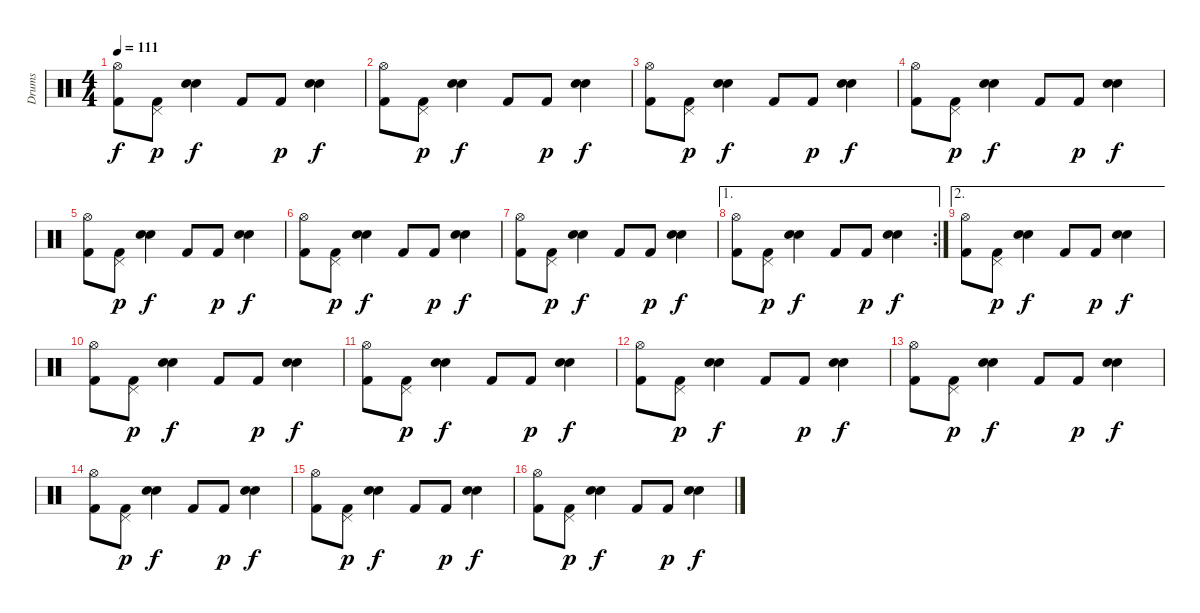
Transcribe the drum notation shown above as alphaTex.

\track ("Drums" "Drums") {instrument percussion}
\staff {score}
\articulation defaults
\ts (4 4)
\tempo 111
\clef neutral
\ks c
("Hi-Hat (open)" "Kick (hit) 2").8{dy f} ("Kick (hit) 2" "Pedal Hi-Hat (hit)").8{dy p} ("Snare (hit) 2" "Snare (hit) 2").4{dy f} "Kick (hit) 2".8 "Kick (hit) 2".8{dy p} ("Snare (hit) 2" "Snare (hit) 2").4{dy f} |
("Hi-Hat (open)" "Kick (hit) 2").8 ("Kick (hit) 2" "Pedal Hi-Hat (hit)").8{dy p} ("Snare (hit) 2" "Snare (hit) 2").4{dy f} "Kick (hit) 2".8 "Kick (hit) 2".8{dy p} ("Snare (hit) 2" "Snare (hit) 2").4{dy f} |
("Hi-Hat (open)" "Kick (hit) 2").8 ("Kick (hit) 2" "Pedal Hi-Hat (hit)").8{dy p} ("Snare (hit) 2" "Snare (hit) 2").4{dy f} "Kick (hit) 2".8 "Kick (hit) 2".8{dy p} ("Snare (hit) 2" "Snare (hit) 2").4{dy f} |
("Hi-Hat (open)" "Kick (hit) 2").8 ("Kick (hit) 2" "Pedal Hi-Hat (hit)").8{dy p} ("Snare (hit) 2" "Snare (hit) 2").4{dy f} "Kick (hit) 2".8 "Kick (hit) 2".8{dy p} ("Snare (hit) 2" "Snare (hit) 2").4{dy f} |
("Hi-Hat (open)" "Kick (hit) 2").8 ("Kick (hit) 2" "Pedal Hi-Hat (hit)").8{dy p} ("Snare (hit) 2" "Snare (hit) 2").4{dy f} "Kick (hit) 2".8 "Kick (hit) 2".8{dy p} ("Snare (hit) 2" "Snare (hit) 2").4{dy f} |
("Hi-Hat (open)" "Kick (hit) 2").8 ("Kick (hit) 2" "Pedal Hi-Hat (hit)").8{dy p} ("Snare (hit) 2" "Snare (hit) 2").4{dy f} "Kick (hit) 2".8 "Kick (hit) 2".8{dy p} ("Snare (hit) 2" "Snare (hit) 2").4{dy f} |
("Hi-Hat (open)" "Kick (hit) 2").8 ("Kick (hit) 2" "Pedal Hi-Hat (hit)").8{dy p} ("Snare (hit) 2" "Snare (hit) 2").4{dy f} "Kick (hit) 2".8 "Kick (hit) 2".8{dy p} ("Snare (hit) 2" "Snare (hit) 2").4{dy f} |
\ae 1
\rc 2
("Hi-Hat (open)" "Kick (hit) 2").8 ("Kick (hit) 2" "Pedal Hi-Hat (hit)").8{dy p} ("Snare (hit) 2" "Snare (hit) 2").4{dy f} "Kick (hit) 2".8 "Kick (hit) 2".8{dy p} ("Snare (hit) 2" "Snare (hit) 2").4{dy f} |
\ae 2
("Hi-Hat (open)" "Kick (hit) 2").8 ("Kick (hit) 2" "Pedal Hi-Hat (hit)").8{dy p} ("Snare (hit) 2" "Snare (hit) 2").4{dy f} "Kick (hit) 2".8 "Kick (hit) 2".8{dy p} ("Snare (hit) 2" "Snare (hit) 2").4{dy f} |
("Hi-Hat (open)" "Kick (hit) 2").8 ("Kick (hit) 2" "Pedal Hi-Hat (hit)").8{dy p} ("Snare (hit) 2" "Snare (hit) 2").4{dy f} "Kick (hit) 2".8 "Kick (hit) 2".8{dy p} ("Snare (hit) 2" "Snare (hit) 2").4{dy f} |
("Hi-Hat (open)" "Kick (hit) 2").8 ("Kick (hit) 2" "Pedal Hi-Hat (hit)").8{dy p} ("Snare (hit) 2" "Snare (hit) 2").4{dy f} "Kick (hit) 2".8 "Kick (hit) 2".8{dy p} ("Snare (hit) 2" "Snare (hit) 2").4{dy f} |
("Hi-Hat (open)" "Kick (hit) 2").8 ("Kick (hit) 2" "Pedal Hi-Hat (hit)").8{dy p} ("Snare (hit) 2" "Snare (hit) 2").4{dy f} "Kick (hit) 2".8 "Kick (hit) 2".8{dy p} ("Snare (hit) 2" "Snare (hit) 2").4{dy f} |
("Hi-Hat (open)" "Kick (hit) 2").8 ("Kick (hit) 2" "Pedal Hi-Hat (hit)").8{dy p} ("Snare (hit) 2" "Snare (hit) 2").4{dy f} "Kick (hit) 2".8 "Kick (hit) 2".8{dy p} ("Snare (hit) 2" "Snare (hit) 2").4{dy f} |
("Hi-Hat (open)" "Kick (hit) 2").8 ("Kick (hit) 2" "Pedal Hi-Hat (hit)").8{dy p} ("Snare (hit) 2" "Snare (hit) 2").4{dy f} "Kick (hit) 2".8 "Kick (hit) 2".8{dy p} ("Snare (hit) 2" "Snare (hit) 2").4{dy f} |
("Hi-Hat (open)" "Kick (hit) 2").8 ("Kick (hit) 2" "Pedal Hi-Hat (hit)").8{dy p} ("Snare (hit) 2" "Snare (hit) 2").4{dy f} "Kick (hit) 2".8 "Kick (hit) 2".8{dy p} ("Snare (hit) 2" "Snare (hit) 2").4{dy f} |
("Hi-Hat (open)" "Kick (hit) 2").8 ("Kick (hit) 2" "Pedal Hi-Hat (hit)").8{dy p} ("Snare (hit) 2" "Snare (hit) 2").4{dy f} "Kick (hit) 2".8 "Kick (hit) 2".8{dy p} ("Snare (hit) 2" "Snare (hit) 2").4{dy f}
